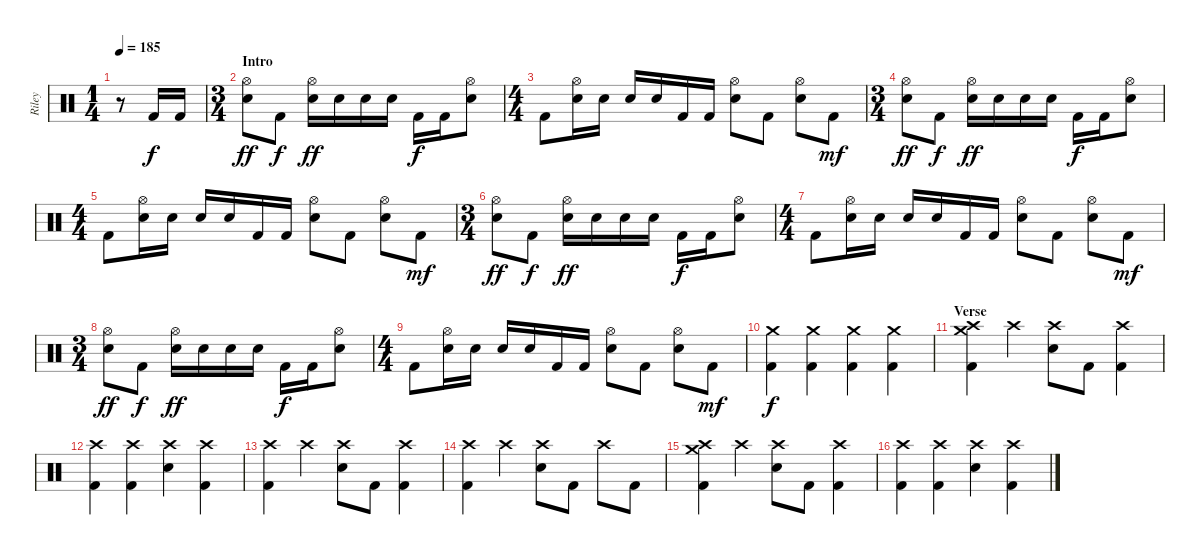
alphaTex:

\track ("Riley" "Riley") {instrument percussion}
\staff {score}
\articulation defaults
\ts (1 4)
\tempo 185
\clef neutral
\ks c
r.8{dy f} "Kick (hit) 2".16 "Kick (hit) 2".16 |
\ts (3 4)
\section ("" "Intro")
("Hi-Hat (open)" "Electric Snare (hit)").8{dy ff} "Kick (hit) 2".8{dy f} ("Hi-Hat (open)" "Electric Snare (hit)").16{dy ff} "Electric Snare (hit)".16 "Electric Snare (hit)".16 "Electric Snare (hit)".16 "Kick (hit) 2".16{dy f} "Kick (hit) 2".16 ("Hi-Hat (open)" "Electric Snare (hit)").8 |
\ts (4 4)
"Kick (hit) 2".8 ("Hi-Hat (open)" "Electric Snare (hit)").16 "Electric Snare (hit)".16 "Electric Snare (hit)".16 "Electric Snare (hit)".16 "Kick (hit) 2".16 "Kick (hit) 2".16 ("Hi-Hat (open)" "Electric Snare (hit)").8 "Kick (hit) 2".8 ("Hi-Hat (open)" "Electric Snare (hit)").8 "Kick (hit) 2".8{dy mf} |
\ts (3 4)
("Hi-Hat (open)" "Electric Snare (hit)").8{dy ff} "Kick (hit) 2".8{dy f} ("Hi-Hat (open)" "Electric Snare (hit)").16{dy ff} "Electric Snare (hit)".16 "Electric Snare (hit)".16 "Electric Snare (hit)".16 "Kick (hit) 2".16{dy f} "Kick (hit) 2".16 ("Hi-Hat (open)" "Electric Snare (hit)").8 |
\ts (4 4)
"Kick (hit) 2".8 ("Hi-Hat (open)" "Electric Snare (hit)").16 "Electric Snare (hit)".16 "Electric Snare (hit)".16 "Electric Snare (hit)".16 "Kick (hit) 2".16 "Kick (hit) 2".16 ("Hi-Hat (open)" "Electric Snare (hit)").8 "Kick (hit) 2".8 ("Hi-Hat (open)" "Electric Snare (hit)").8 "Kick (hit) 2".8{dy mf} |
\ts (3 4)
("Hi-Hat (open)" "Electric Snare (hit)").8{dy ff} "Kick (hit) 2".8{dy f} ("Hi-Hat (open)" "Electric Snare (hit)").16{dy ff} "Electric Snare (hit)".16 "Electric Snare (hit)".16 "Electric Snare (hit)".16 "Kick (hit) 2".16{dy f} "Kick (hit) 2".16 ("Hi-Hat (open)" "Electric Snare (hit)").8 |
\ts (4 4)
"Kick (hit) 2".8 ("Hi-Hat (open)" "Electric Snare (hit)").16 "Electric Snare (hit)".16 "Electric Snare (hit)".16 "Electric Snare (hit)".16 "Kick (hit) 2".16 "Kick (hit) 2".16 ("Hi-Hat (open)" "Electric Snare (hit)").8 "Kick (hit) 2".8 ("Hi-Hat (open)" "Electric Snare (hit)").8 "Kick (hit) 2".8{dy mf} |
\ts (3 4)
("Hi-Hat (open)" "Electric Snare (hit)").8{dy ff} "Kick (hit) 2".8{dy f} ("Hi-Hat (open)" "Electric Snare (hit)").16{dy ff} "Electric Snare (hit)".16 "Electric Snare (hit)".16 "Electric Snare (hit)".16 "Kick (hit) 2".16{dy f} "Kick (hit) 2".16 ("Hi-Hat (open)" "Electric Snare (hit)").8 |
\ts (4 4)
"Kick (hit) 2".8 ("Hi-Hat (open)" "Electric Snare (hit)").16 "Electric Snare (hit)".16 "Electric Snare (hit)".16 "Electric Snare (hit)".16 "Kick (hit) 2".16 "Kick (hit) 2".16 ("Hi-Hat (open)" "Electric Snare (hit)").8 "Kick (hit) 2".8 ("Hi-Hat (open)" "Electric Snare (hit)").8 "Kick (hit) 2".8{dy mf} |
("Crash medium (hit)" "Kick (hit) 2").4{dy f} ("Crash medium (hit)" "Kick (hit) 2").4 ("Crash medium (hit)" "Kick (hit) 2").4 ("Crash medium (hit)" "Kick (hit) 2").4 |
\section ("" "Verse")
("Crash medium (hit)" "Crash high (hit)" "Kick (hit) 2").4 "Crash high (hit)".4 ("Crash high (hit)" "Electric Snare (hit)").8 "Kick (hit) 2".8 ("Crash high (hit)" "Kick (hit) 2").4 |
("Crash high (hit)" "Kick (hit) 2").4 ("Crash high (hit)" "Kick (hit) 2").4 ("Crash high (hit)" "Electric Snare (hit)").4 ("Crash high (hit)" "Kick (hit) 2").4 |
("Crash high (hit)" "Kick (hit) 2").4 "Crash high (hit)".4 ("Crash high (hit)" "Electric Snare (hit)").8 "Kick (hit) 2".8 ("Crash high (hit)" "Kick (hit) 2").4 |
("Crash high (hit)" "Kick (hit) 2").4 "Crash high (hit)".4 ("Crash high (hit)" "Electric Snare (hit)").8 "Kick (hit) 2".8 "Crash high (hit)".8 "Kick (hit) 2".8 |
("Crash medium (hit)" "Crash high (hit)" "Kick (hit) 2").4 "Crash high (hit)".4 ("Crash high (hit)" "Electric Snare (hit)").8 "Kick (hit) 2".8 ("Crash high (hit)" "Kick (hit) 2").4 |
("Crash high (hit)" "Kick (hit) 2").4 ("Crash high (hit)" "Kick (hit) 2").4 ("Crash high (hit)" "Electric Snare (hit)").4 ("Crash high (hit)" "Kick (hit) 2").4
